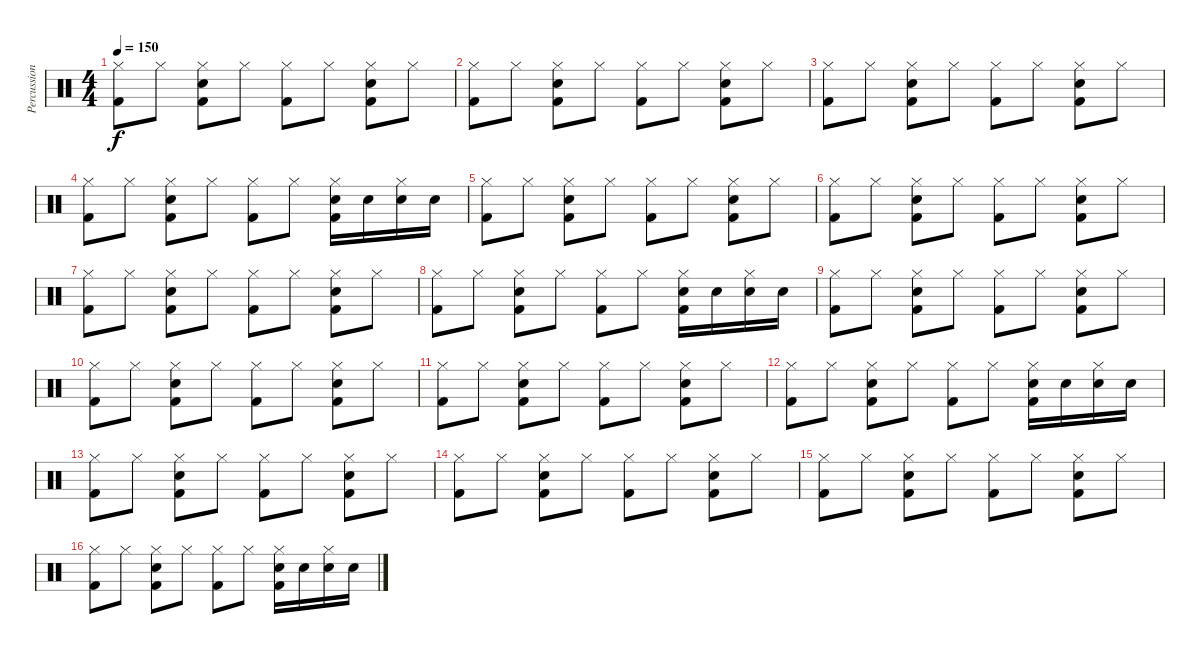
\track ("Percussion" "Percussion") {instrument percussion}
\staff {score}
\articulation defaults
\ts (4 4)
\tempo 150
\clef neutral
\ks c
("Hi-Hat (closed)" "Kick (hit) 2").8{dy f} "Hi-Hat (closed)".8 ("Hi-Hat (closed)" "Snare (hit) 2" "Kick (hit) 2").8 "Hi-Hat (closed)".8 ("Hi-Hat (closed)" "Kick (hit) 2").8 "Hi-Hat (closed)".8 ("Hi-Hat (closed)" "Snare (hit) 2" "Kick (hit) 2").8 "Hi-Hat (closed)".8 |
("Hi-Hat (closed)" "Kick (hit) 2").8 "Hi-Hat (closed)".8 ("Hi-Hat (closed)" "Snare (hit) 2" "Kick (hit) 2").8 "Hi-Hat (closed)".8 ("Hi-Hat (closed)" "Kick (hit) 2").8 "Hi-Hat (closed)".8 ("Hi-Hat (closed)" "Snare (hit) 2" "Kick (hit) 2").8 "Hi-Hat (closed)".8 |
("Hi-Hat (closed)" "Kick (hit) 2").8 "Hi-Hat (closed)".8 ("Hi-Hat (closed)" "Snare (hit) 2" "Kick (hit) 2").8 "Hi-Hat (closed)".8 ("Hi-Hat (closed)" "Kick (hit) 2").8 "Hi-Hat (closed)".8 ("Hi-Hat (closed)" "Snare (hit) 2" "Kick (hit) 2").8 "Hi-Hat (closed)".8 |
("Hi-Hat (closed)" "Kick (hit) 2").8 "Hi-Hat (closed)".8 ("Hi-Hat (closed)" "Snare (hit) 2" "Kick (hit) 2").8 "Hi-Hat (closed)".8 ("Hi-Hat (closed)" "Kick (hit) 2").8 "Hi-Hat (closed)".8 ("Hi-Hat (closed)" "Snare (hit) 2" "Kick (hit) 2").16 "Snare (hit) 2".16 ("Hi-Hat (closed)" "Snare (hit) 2").16 "Snare (hit) 2".16 |
("Hi-Hat (closed)" "Kick (hit) 2").8 "Hi-Hat (closed)".8 ("Hi-Hat (closed)" "Snare (hit) 2" "Kick (hit) 2").8 "Hi-Hat (closed)".8 ("Hi-Hat (closed)" "Kick (hit) 2").8 "Hi-Hat (closed)".8 ("Hi-Hat (closed)" "Snare (hit) 2" "Kick (hit) 2").8 "Hi-Hat (closed)".8 |
("Hi-Hat (closed)" "Kick (hit) 2").8 "Hi-Hat (closed)".8 ("Hi-Hat (closed)" "Snare (hit) 2" "Kick (hit) 2").8 "Hi-Hat (closed)".8 ("Hi-Hat (closed)" "Kick (hit) 2").8 "Hi-Hat (closed)".8 ("Hi-Hat (closed)" "Snare (hit) 2" "Kick (hit) 2").8 "Hi-Hat (closed)".8 |
("Hi-Hat (closed)" "Kick (hit) 2").8 "Hi-Hat (closed)".8 ("Hi-Hat (closed)" "Snare (hit) 2" "Kick (hit) 2").8 "Hi-Hat (closed)".8 ("Hi-Hat (closed)" "Kick (hit) 2").8 "Hi-Hat (closed)".8 ("Hi-Hat (closed)" "Snare (hit) 2" "Kick (hit) 2").8 "Hi-Hat (closed)".8 |
("Hi-Hat (closed)" "Kick (hit) 2").8 "Hi-Hat (closed)".8 ("Hi-Hat (closed)" "Snare (hit) 2" "Kick (hit) 2").8 "Hi-Hat (closed)".8 ("Hi-Hat (closed)" "Kick (hit) 2").8 "Hi-Hat (closed)".8 ("Hi-Hat (closed)" "Snare (hit) 2" "Kick (hit) 2").16 "Snare (hit) 2".16 ("Hi-Hat (closed)" "Snare (hit) 2").16 "Snare (hit) 2".16 |
("Hi-Hat (closed)" "Kick (hit) 2").8 "Hi-Hat (closed)".8 ("Hi-Hat (closed)" "Snare (hit) 2" "Kick (hit) 2").8 "Hi-Hat (closed)".8 ("Hi-Hat (closed)" "Kick (hit) 2").8 "Hi-Hat (closed)".8 ("Hi-Hat (closed)" "Snare (hit) 2" "Kick (hit) 2").8 "Hi-Hat (closed)".8 |
("Hi-Hat (closed)" "Kick (hit) 2").8 "Hi-Hat (closed)".8 ("Hi-Hat (closed)" "Snare (hit) 2" "Kick (hit) 2").8 "Hi-Hat (closed)".8 ("Hi-Hat (closed)" "Kick (hit) 2").8 "Hi-Hat (closed)".8 ("Hi-Hat (closed)" "Snare (hit) 2" "Kick (hit) 2").8 "Hi-Hat (closed)".8 |
("Hi-Hat (closed)" "Kick (hit) 2").8 "Hi-Hat (closed)".8 ("Hi-Hat (closed)" "Snare (hit) 2" "Kick (hit) 2").8 "Hi-Hat (closed)".8 ("Hi-Hat (closed)" "Kick (hit) 2").8 "Hi-Hat (closed)".8 ("Hi-Hat (closed)" "Snare (hit) 2" "Kick (hit) 2").8 "Hi-Hat (closed)".8 |
("Hi-Hat (closed)" "Kick (hit) 2").8 "Hi-Hat (closed)".8 ("Hi-Hat (closed)" "Snare (hit) 2" "Kick (hit) 2").8 "Hi-Hat (closed)".8 ("Hi-Hat (closed)" "Kick (hit) 2").8 "Hi-Hat (closed)".8 ("Hi-Hat (closed)" "Snare (hit) 2" "Kick (hit) 2").16 "Snare (hit) 2".16 ("Hi-Hat (closed)" "Snare (hit) 2").16 "Snare (hit) 2".16 |
("Hi-Hat (closed)" "Kick (hit) 2").8 "Hi-Hat (closed)".8 ("Hi-Hat (closed)" "Snare (hit) 2" "Kick (hit) 2").8 "Hi-Hat (closed)".8 ("Hi-Hat (closed)" "Kick (hit) 2").8 "Hi-Hat (closed)".8 ("Hi-Hat (closed)" "Snare (hit) 2" "Kick (hit) 2").8 "Hi-Hat (closed)".8 |
("Hi-Hat (closed)" "Kick (hit) 2").8 "Hi-Hat (closed)".8 ("Hi-Hat (closed)" "Snare (hit) 2" "Kick (hit) 2").8 "Hi-Hat (closed)".8 ("Hi-Hat (closed)" "Kick (hit) 2").8 "Hi-Hat (closed)".8 ("Hi-Hat (closed)" "Snare (hit) 2" "Kick (hit) 2").8 "Hi-Hat (closed)".8 |
("Hi-Hat (closed)" "Kick (hit) 2").8 "Hi-Hat (closed)".8 ("Hi-Hat (closed)" "Snare (hit) 2" "Kick (hit) 2").8 "Hi-Hat (closed)".8 ("Hi-Hat (closed)" "Kick (hit) 2").8 "Hi-Hat (closed)".8 ("Hi-Hat (closed)" "Snare (hit) 2" "Kick (hit) 2").8 "Hi-Hat (closed)".8 |
("Hi-Hat (closed)" "Kick (hit) 2").8 "Hi-Hat (closed)".8 ("Hi-Hat (closed)" "Snare (hit) 2" "Kick (hit) 2").8 "Hi-Hat (closed)".8 ("Hi-Hat (closed)" "Kick (hit) 2").8 "Hi-Hat (closed)".8 ("Hi-Hat (closed)" "Snare (hit) 2" "Kick (hit) 2").16 "Snare (hit) 2".16 ("Hi-Hat (closed)" "Snare (hit) 2").16 "Snare (hit) 2".16
